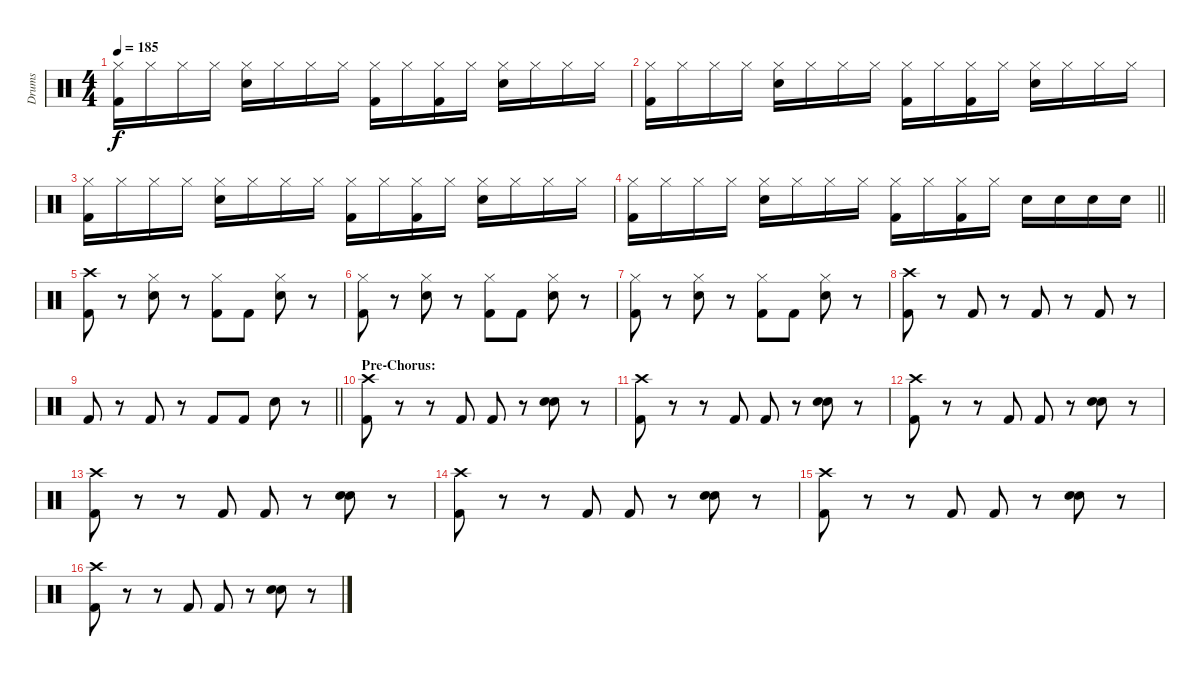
\track ("Drums" "Drums") {instrument percussion}
\staff {score}
\articulation defaults
\ts (4 4)
\tempo 185
\clef neutral
\ks c
("Hi-Hat (closed)" "Kick (hit) 2").16{dy f} "Hi-Hat (closed)".16 "Hi-Hat (closed)".16 "Hi-Hat (closed)".16 ("Hi-Hat (closed)" "Snare (hit) 2").16 "Hi-Hat (closed)".16 "Hi-Hat (closed)".16 "Hi-Hat (closed)".16 ("Hi-Hat (closed)" "Kick (hit) 2").16 "Hi-Hat (closed)".16 ("Hi-Hat (closed)" "Kick (hit) 2").16 "Hi-Hat (closed)".16 ("Hi-Hat (closed)" "Snare (hit) 2").16 "Hi-Hat (closed)".16 "Hi-Hat (closed)".16 "Hi-Hat (closed)".16 |
("Hi-Hat (closed)" "Kick (hit) 2").16 "Hi-Hat (closed)".16 "Hi-Hat (closed)".16 "Hi-Hat (closed)".16 ("Hi-Hat (closed)" "Snare (hit) 2").16 "Hi-Hat (closed)".16 "Hi-Hat (closed)".16 "Hi-Hat (closed)".16 ("Hi-Hat (closed)" "Kick (hit) 2").16 "Hi-Hat (closed)".16 ("Hi-Hat (closed)" "Kick (hit) 2").16 "Hi-Hat (closed)".16 ("Hi-Hat (closed)" "Snare (hit) 2").16 "Hi-Hat (closed)".16 "Hi-Hat (closed)".16 "Hi-Hat (closed)".16 |
("Hi-Hat (closed)" "Kick (hit) 2").16 "Hi-Hat (closed)".16 "Hi-Hat (closed)".16 "Hi-Hat (closed)".16 ("Hi-Hat (closed)" "Snare (hit) 2").16 "Hi-Hat (closed)".16 "Hi-Hat (closed)".16 "Hi-Hat (closed)".16 ("Hi-Hat (closed)" "Kick (hit) 2").16 "Hi-Hat (closed)".16 ("Hi-Hat (closed)" "Kick (hit) 2").16 "Hi-Hat (closed)".16 ("Hi-Hat (closed)" "Snare (hit) 2").16 "Hi-Hat (closed)".16 "Hi-Hat (closed)".16 "Hi-Hat (closed)".16 |
\barLineRight lightlight
("Hi-Hat (closed)" "Kick (hit) 2").16 "Hi-Hat (closed)".16 "Hi-Hat (closed)".16 "Hi-Hat (closed)".16 ("Hi-Hat (closed)" "Snare (hit) 2").16 "Hi-Hat (closed)".16 "Hi-Hat (closed)".16 "Hi-Hat (closed)".16 ("Hi-Hat (closed)" "Kick (hit) 2").16 "Hi-Hat (closed)".16 ("Hi-Hat (closed)" "Kick (hit) 2").16 "Hi-Hat (closed)".16 "Snare (hit) 2".16 "Snare (hit) 2".16 "Snare (hit) 2".16 "Snare (hit) 2".16 |
\section ("" "")
("Crash high (hit)" "Kick (hit) 2").8 r.8 ("Hi-Hat (closed)" "Snare (hit) 2").8 r.8 ("Hi-Hat (closed)" "Kick (hit) 2").8 "Kick (hit) 2".8 ("Hi-Hat (closed)" "Snare (hit) 2").8 r.8 |
("Hi-Hat (closed)" "Kick (hit) 2").8 r.8 ("Hi-Hat (closed)" "Snare (hit) 2").8 r.8 ("Hi-Hat (closed)" "Kick (hit) 2").8 "Kick (hit) 2".8 ("Hi-Hat (closed)" "Snare (hit) 2").8 r.8 |
("Hi-Hat (closed)" "Kick (hit) 2").8 r.8 ("Hi-Hat (closed)" "Snare (hit) 2").8 r.8 ("Hi-Hat (closed)" "Kick (hit) 2").8 "Kick (hit) 2".8 ("Hi-Hat (closed)" "Snare (hit) 2").8 r.8 |
("Crash high (hit)" "Kick (hit) 2").8 r.8 "Kick (hit) 2".8 r.8 "Kick (hit) 2".8 r.8 "Kick (hit) 2".8 r.8 |
\barLineRight lightlight "Kick (hit) 2".8
r.8 "Kick (hit) 2".8 r.8 "Kick (hit) 2".8 "Kick (hit) 2".8 "Snare (hit) 2".8 r.8 |
\section ("" "Pre-Chorus:")
("Crash high (hit)" "Kick (hit) 2").8 r.8 r.8 "Kick (hit) 2".8 "Kick (hit) 2".8 r.8 ("Snare (hit) 2" "Snare (hit) 2").8 r.8 |
("Crash high (hit)" "Kick (hit) 2").8 r.8 r.8 "Kick (hit) 2".8 "Kick (hit) 2".8 r.8 ("Snare (hit) 2" "Snare (hit) 2").8 r.8 |
("Crash high (hit)" "Kick (hit) 2").8 r.8 r.8 "Kick (hit) 2".8 "Kick (hit) 2".8 r.8 ("Snare (hit) 2" "Snare (hit) 2").8 r.8 |
("Crash high (hit)" "Kick (hit) 2").8 r.8 r.8 "Kick (hit) 2".8 "Kick (hit) 2".8 r.8 ("Snare (hit) 2" "Snare (hit) 2").8 r.8 |
("Crash high (hit)" "Kick (hit) 2").8 r.8 r.8 "Kick (hit) 2".8 "Kick (hit) 2".8 r.8 ("Snare (hit) 2" "Snare (hit) 2").8 r.8 |
("Crash high (hit)" "Kick (hit) 2").8 r.8 r.8 "Kick (hit) 2".8 "Kick (hit) 2".8 r.8 ("Snare (hit) 2" "Snare (hit) 2").8 r.8 |
("Crash high (hit)" "Kick (hit) 2").8 r.8 r.8 "Kick (hit) 2".8 "Kick (hit) 2".8 r.8 ("Snare (hit) 2" "Snare (hit) 2").8 r.8
